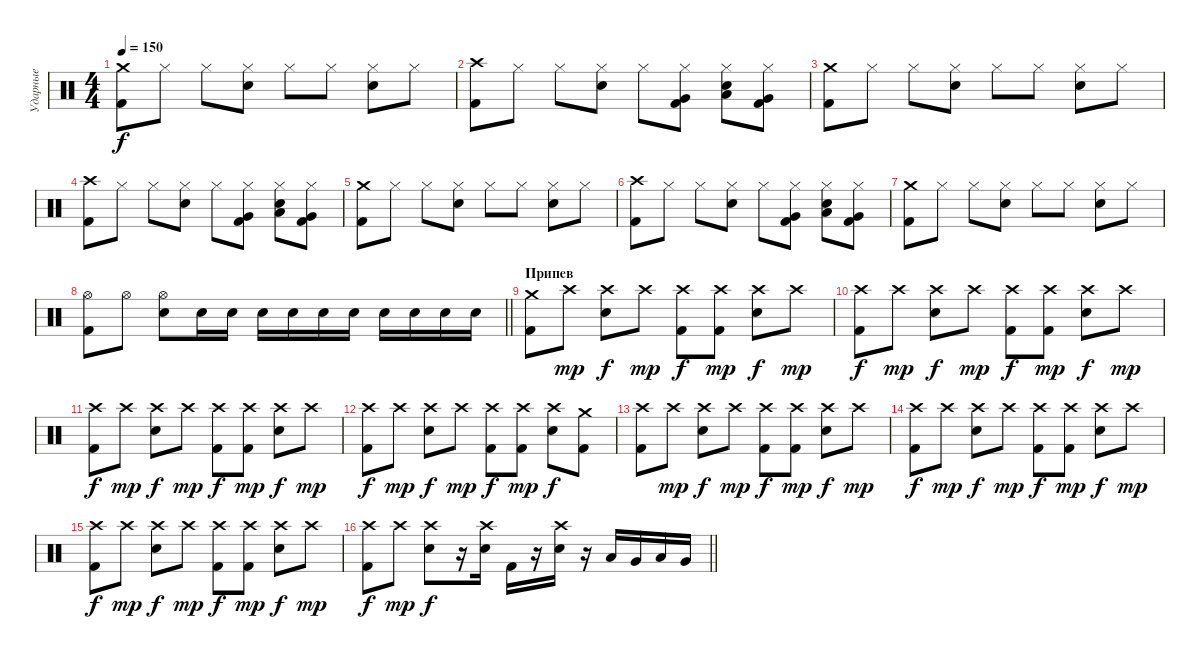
\track ("Ударные" "Ударные") {instrument percussion}
\staff {score}
\articulation defaults
\ts (4 4)
\tempo 150
\clef neutral
\ks c
("Crash medium (hit)" "Kick (hit) 2").8{dy f} "Hi-Hat (closed)".8 "Hi-Hat (closed)".8 ("Hi-Hat (closed)" "Electric Snare (hit)").8 "Hi-Hat (closed)".8 "Hi-Hat (closed)".8 ("Hi-Hat (closed)" "Electric Snare (hit)").8 "Hi-Hat (closed)".8 |
("Crash high (hit)" "Kick (hit) 2").8 "Hi-Hat (closed)".8 "Hi-Hat (closed)".8 ("Hi-Hat (closed)" "Electric Snare (hit)").8 "Hi-Hat (closed)".8 ("Very Low Tom (hit)" "Hi-Hat (closed)" "Kick (hit) 2").8 ("Low Tom (hit)" "Hi-Hat (closed)" "Electric Snare (hit)").8 ("Very Low Tom (hit)" "Hi-Hat (closed)" "Kick (hit) 2").8 |
("Crash medium (hit)" "Kick (hit) 2").8 "Hi-Hat (closed)".8 "Hi-Hat (closed)".8 ("Hi-Hat (closed)" "Electric Snare (hit)").8 "Hi-Hat (closed)".8 "Hi-Hat (closed)".8 ("Hi-Hat (closed)" "Electric Snare (hit)").8 "Hi-Hat (closed)".8 |
("Crash high (hit)" "Kick (hit) 2").8 "Hi-Hat (closed)".8 "Hi-Hat (closed)".8 ("Hi-Hat (closed)" "Electric Snare (hit)").8 "Hi-Hat (closed)".8 ("Very Low Tom (hit)" "Hi-Hat (closed)" "Kick (hit) 2").8 ("Low Tom (hit)" "Hi-Hat (closed)" "Electric Snare (hit)").8 ("Very Low Tom (hit)" "Hi-Hat (closed)" "Kick (hit) 2").8 |
("Crash medium (hit)" "Kick (hit) 2").8 "Hi-Hat (closed)".8 "Hi-Hat (closed)".8 ("Hi-Hat (closed)" "Electric Snare (hit)").8 "Hi-Hat (closed)".8 "Hi-Hat (closed)".8 ("Hi-Hat (closed)" "Electric Snare (hit)").8 "Hi-Hat (closed)".8 |
("Crash high (hit)" "Kick (hit) 2").8 "Hi-Hat (closed)".8 "Hi-Hat (closed)".8 ("Hi-Hat (closed)" "Electric Snare (hit)").8 "Hi-Hat (closed)".8 ("Very Low Tom (hit)" "Hi-Hat (closed)" "Kick (hit) 2").8 ("Low Tom (hit)" "Hi-Hat (closed)" "Electric Snare (hit)").8 ("Very Low Tom (hit)" "Hi-Hat (closed)" "Kick (hit) 2").8 |
("Crash medium (hit)" "Kick (hit) 2").8 "Hi-Hat (closed)".8 "Hi-Hat (closed)".8 ("Hi-Hat (closed)" "Electric Snare (hit)").8 "Hi-Hat (closed)".8 "Hi-Hat (closed)".8 ("Hi-Hat (closed)" "Electric Snare (hit)").8 "Hi-Hat (closed)".8 |
\barLineRight lightlight
("Hi-Hat (open)" "Kick (hit) 2").8 "Hi-Hat (open)".8 ("Hi-Hat (open)" "Electric Snare (hit)").8 "Electric Snare (hit)".16 "Electric Snare (hit)".16 "Electric Snare (hit)".16 "Electric Snare (hit)".16 "Electric Snare (hit)".16 "Electric Snare (hit)".16 "Electric Snare (hit)".16 "Electric Snare (hit)".16 "Electric Snare (hit)".16 "Electric Snare (hit)".16 |
\section ("" "Припев")
("Crash medium (hit)" "Kick (hit) 2").8 "Crash high (hit)".8{dy mp} ("Crash high (hit)" "Electric Snare (hit)").8{dy f} "Crash high (hit)".8{dy mp} ("Crash high (hit)" "Kick (hit) 2").8{dy f} ("Crash high (hit)" "Kick (hit) 2").8{dy mp} ("Crash high (hit)" "Electric Snare (hit)").8{dy f} "Crash high (hit)".8{dy mp} |
("Crash high (hit)" "Kick (hit) 2").8{dy f} "Crash high (hit)".8{dy mp} ("Crash high (hit)" "Electric Snare (hit)").8{dy f} "Crash high (hit)".8{dy mp} ("Crash high (hit)" "Kick (hit) 2").8{dy f} ("Crash high (hit)" "Kick (hit) 2").8{dy mp} ("Crash high (hit)" "Electric Snare (hit)").8{dy f} "Crash high (hit)".8{dy mp} |
("Crash high (hit)" "Kick (hit) 2").8{dy f} "Crash high (hit)".8{dy mp} ("Crash high (hit)" "Electric Snare (hit)").8{dy f} "Crash high (hit)".8{dy mp} ("Crash high (hit)" "Kick (hit) 2").8{dy f} ("Crash high (hit)" "Kick (hit) 2").8{dy mp} ("Crash high (hit)" "Electric Snare (hit)").8{dy f} "Crash high (hit)".8{dy mp} |
("Crash high (hit)" "Kick (hit) 2").8{dy f} "Crash high (hit)".8{dy mp} ("Crash high (hit)" "Electric Snare (hit)").8{dy f} "Crash high (hit)".8{dy mp} ("Crash high (hit)" "Kick (hit) 2").8{dy f} ("Crash high (hit)" "Kick (hit) 2").8{dy mp} ("Crash high (hit)" "Electric Snare (hit)").8{dy f} ("Crash medium (hit)" "Kick (hit) 2").8 |
("Crash high (hit)" "Kick (hit) 2").8 "Crash high (hit)".8{dy mp} ("Crash high (hit)" "Electric Snare (hit)").8{dy f} "Crash high (hit)".8{dy mp} ("Crash high (hit)" "Kick (hit) 2").8{dy f} ("Crash high (hit)" "Kick (hit) 2").8{dy mp} ("Crash high (hit)" "Electric Snare (hit)").8{dy f} "Crash high (hit)".8{dy mp} |
("Crash high (hit)" "Kick (hit) 2").8{dy f} "Crash high (hit)".8{dy mp} ("Crash high (hit)" "Electric Snare (hit)").8{dy f} "Crash high (hit)".8{dy mp} ("Crash high (hit)" "Kick (hit) 2").8{dy f} ("Crash high (hit)" "Kick (hit) 2").8{dy mp} ("Crash high (hit)" "Electric Snare (hit)").8{dy f} "Crash high (hit)".8{dy mp} |
("Crash high (hit)" "Kick (hit) 2").8{dy f} "Crash high (hit)".8{dy mp} ("Crash high (hit)" "Electric Snare (hit)").8{dy f} "Crash high (hit)".8{dy mp} ("Crash high (hit)" "Kick (hit) 2").8{dy f} ("Crash high (hit)" "Kick (hit) 2").8{dy mp} ("Crash high (hit)" "Electric Snare (hit)").8{dy f} "Crash high (hit)".8{dy mp} |
\barLineRight lightlight
("Crash high (hit)" "Kick (hit) 2").8{dy f} "Crash high (hit)".8{dy mp} ("Crash high (hit)" "Electric Snare (hit)").8{dy f} r.16 ("Crash high (hit)" "Electric Snare (hit)").16 "Kick (hit) 2".16 r.16 ("Crash high (hit)" "Electric Snare (hit)").16 r.16 "Low Floor Tom (hit)".16 "Very Low Tom (hit)".16 "Low Floor Tom (hit)".16 "Very Low Tom (hit)".16
